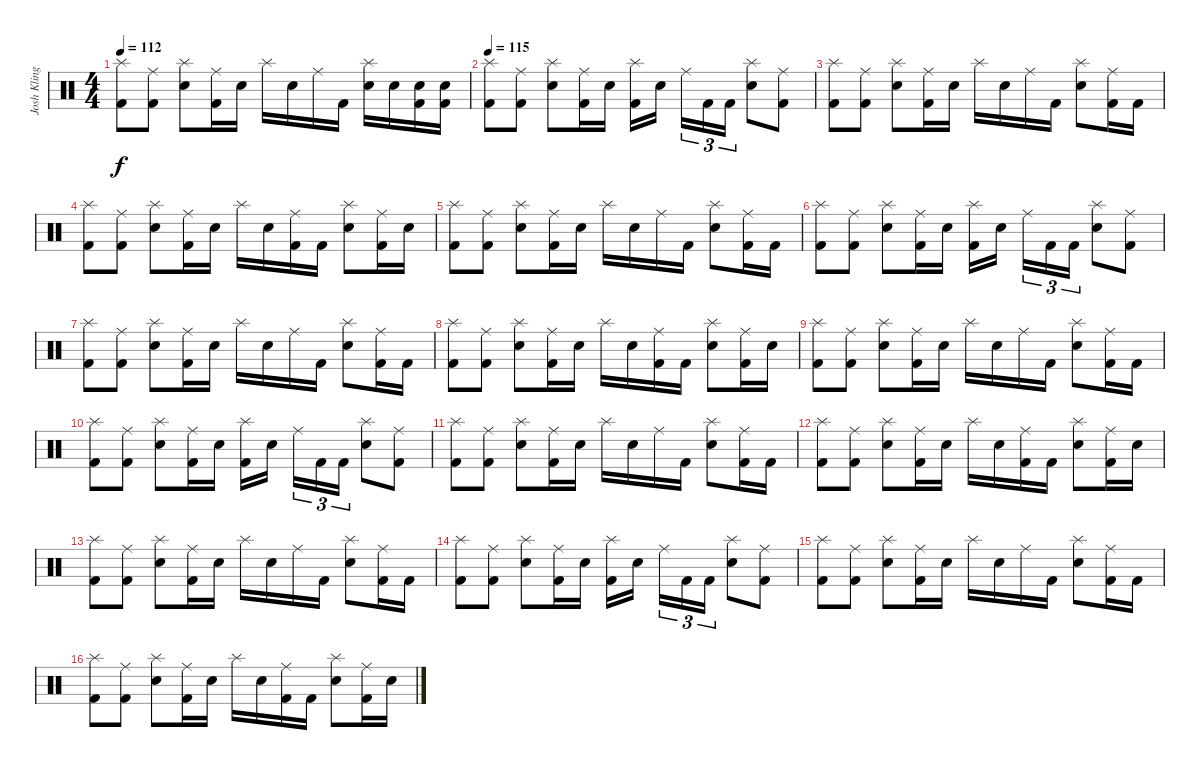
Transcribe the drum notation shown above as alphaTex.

\track ("Josh Klinghoffer " "Josh Kling") {instrument percussion}
\staff {score}
\articulation defaults
\ts (4 4)
\tempo 112
\clef neutral
\ks c
("Splash (hit)" "Kick (hit) 2").8{dy f} ("Ride (middle)" "Kick (hit) 2").8 ("Splash (hit)" "Electric Snare (hit)").8 ("Ride (middle)" "Kick (hit) 2").16 "Electric Snare (hit)".16 "Splash (hit)".16 "Electric Snare (hit)".16 "Ride (middle)".16 "Kick (hit) 2".16 ("Splash (hit)" "Electric Snare (hit)").16 "Electric Snare (hit)".16 ("Electric Snare (hit)" "Kick (hit) 2").16 ("Electric Snare (hit)" "Kick (hit) 2").16 |
\tempo 115
("Splash (hit)" "Kick (hit) 2").8 ("Ride (middle)" "Kick (hit) 2").8 ("Splash (hit)" "Electric Snare (hit)").8 ("Ride (middle)" "Kick (hit) 2").16 "Electric Snare (hit)".16 ("Splash (hit)" "Kick (hit) 2").16 "Electric Snare (hit)".16{beam splitsecondary} "Ride (middle)".16{tu (3 2)} "Kick (hit) 2".16{tu (3 2)} "Kick (hit) 2".16{tu (3 2)} ("Splash (hit)" "Electric Snare (hit)").8 ("Ride (middle)" "Kick (hit) 2").8 |
("Splash (hit)" "Kick (hit) 2").8 ("Ride (middle)" "Kick (hit) 2").8 ("Splash (hit)" "Electric Snare (hit)").8 ("Ride (middle)" "Kick (hit) 2").16 "Electric Snare (hit)".16 "Splash (hit)".16 "Electric Snare (hit)".16 "Ride (middle)".16 "Kick (hit) 2".16 ("Splash (hit)" "Electric Snare (hit)").8 ("Ride (middle)" "Kick (hit) 2").16 "Kick (hit) 2".16 |
("Splash (hit)" "Kick (hit) 2").8 ("Ride (middle)" "Kick (hit) 2").8 ("Splash (hit)" "Electric Snare (hit)").8 ("Ride (middle)" "Kick (hit) 2").16 "Electric Snare (hit)".16 "Splash (hit)".16 "Electric Snare (hit)".16 ("Ride (middle)" "Kick (hit) 2").16 "Kick (hit) 2".16 ("Splash (hit)" "Electric Snare (hit)").8 ("Ride (middle)" "Kick (hit) 2").16 "Electric Snare (hit)".16 |
("Splash (hit)" "Kick (hit) 2").8 ("Ride (middle)" "Kick (hit) 2").8 ("Splash (hit)" "Electric Snare (hit)").8 ("Ride (middle)" "Kick (hit) 2").16 "Electric Snare (hit)".16 "Splash (hit)".16 "Electric Snare (hit)".16 "Ride (middle)".16 "Kick (hit) 2".16 ("Splash (hit)" "Electric Snare (hit)").8 ("Ride (middle)" "Kick (hit) 2").16 "Kick (hit) 2".16 |
("Splash (hit)" "Kick (hit) 2").8 ("Ride (middle)" "Kick (hit) 2").8 ("Splash (hit)" "Electric Snare (hit)").8 ("Ride (middle)" "Kick (hit) 2").16 "Electric Snare (hit)".16 ("Splash (hit)" "Kick (hit) 2").16 "Electric Snare (hit)".16{beam splitsecondary} "Ride (middle)".16{tu (3 2)} "Kick (hit) 2".16{tu (3 2)} "Kick (hit) 2".16{tu (3 2)} ("Splash (hit)" "Electric Snare (hit)").8 ("Ride (middle)" "Kick (hit) 2").8 |
("Splash (hit)" "Kick (hit) 2").8 ("Ride (middle)" "Kick (hit) 2").8 ("Splash (hit)" "Electric Snare (hit)").8 ("Ride (middle)" "Kick (hit) 2").16 "Electric Snare (hit)".16 "Splash (hit)".16 "Electric Snare (hit)".16 "Ride (middle)".16 "Kick (hit) 2".16 ("Splash (hit)" "Electric Snare (hit)").8 ("Ride (middle)" "Kick (hit) 2").16 "Kick (hit) 2".16 |
("Splash (hit)" "Kick (hit) 2").8 ("Ride (middle)" "Kick (hit) 2").8 ("Splash (hit)" "Electric Snare (hit)").8 ("Ride (middle)" "Kick (hit) 2").16 "Electric Snare (hit)".16 "Splash (hit)".16 "Electric Snare (hit)".16 ("Ride (middle)" "Kick (hit) 2").16 "Kick (hit) 2".16 ("Splash (hit)" "Electric Snare (hit)").8 ("Ride (middle)" "Kick (hit) 2").16 "Electric Snare (hit)".16 |
("Splash (hit)" "Kick (hit) 2").8 ("Ride (middle)" "Kick (hit) 2").8 ("Splash (hit)" "Electric Snare (hit)").8 ("Ride (middle)" "Kick (hit) 2").16 "Electric Snare (hit)".16 "Splash (hit)".16 "Electric Snare (hit)".16 "Ride (middle)".16 "Kick (hit) 2".16 ("Splash (hit)" "Electric Snare (hit)").8 ("Ride (middle)" "Kick (hit) 2").16 "Kick (hit) 2".16 |
("Splash (hit)" "Kick (hit) 2").8 ("Ride (middle)" "Kick (hit) 2").8 ("Splash (hit)" "Electric Snare (hit)").8 ("Ride (middle)" "Kick (hit) 2").16 "Electric Snare (hit)".16 ("Splash (hit)" "Kick (hit) 2").16 "Electric Snare (hit)".16{beam splitsecondary} "Ride (middle)".16{tu (3 2)} "Kick (hit) 2".16{tu (3 2)} "Kick (hit) 2".16{tu (3 2)} ("Splash (hit)" "Electric Snare (hit)").8 ("Ride (middle)" "Kick (hit) 2").8 |
("Splash (hit)" "Kick (hit) 2").8 ("Ride (middle)" "Kick (hit) 2").8 ("Splash (hit)" "Electric Snare (hit)").8 ("Ride (middle)" "Kick (hit) 2").16 "Electric Snare (hit)".16 "Splash (hit)".16 "Electric Snare (hit)".16 "Ride (middle)".16 "Kick (hit) 2".16 ("Splash (hit)" "Electric Snare (hit)").8 ("Ride (middle)" "Kick (hit) 2").16 "Kick (hit) 2".16 |
("Splash (hit)" "Kick (hit) 2").8 ("Ride (middle)" "Kick (hit) 2").8 ("Splash (hit)" "Electric Snare (hit)").8 ("Ride (middle)" "Kick (hit) 2").16 "Electric Snare (hit)".16 "Splash (hit)".16 "Electric Snare (hit)".16 ("Ride (middle)" "Kick (hit) 2").16 "Kick (hit) 2".16 ("Splash (hit)" "Electric Snare (hit)").8 ("Ride (middle)" "Kick (hit) 2").16 "Electric Snare (hit)".16 |
("Splash (hit)" "Kick (hit) 2").8 ("Ride (middle)" "Kick (hit) 2").8 ("Splash (hit)" "Electric Snare (hit)").8 ("Ride (middle)" "Kick (hit) 2").16 "Electric Snare (hit)".16 "Splash (hit)".16 "Electric Snare (hit)".16 "Ride (middle)".16 "Kick (hit) 2".16 ("Splash (hit)" "Electric Snare (hit)").8 ("Ride (middle)" "Kick (hit) 2").16 "Kick (hit) 2".16 |
("Splash (hit)" "Kick (hit) 2").8 ("Ride (middle)" "Kick (hit) 2").8 ("Splash (hit)" "Electric Snare (hit)").8 ("Ride (middle)" "Kick (hit) 2").16 "Electric Snare (hit)".16 ("Splash (hit)" "Kick (hit) 2").16 "Electric Snare (hit)".16{beam splitsecondary} "Ride (middle)".16{tu (3 2)} "Kick (hit) 2".16{tu (3 2)} "Kick (hit) 2".16{tu (3 2)} ("Splash (hit)" "Electric Snare (hit)").8 ("Ride (middle)" "Kick (hit) 2").8 |
("Splash (hit)" "Kick (hit) 2").8 ("Ride (middle)" "Kick (hit) 2").8 ("Splash (hit)" "Electric Snare (hit)").8 ("Ride (middle)" "Kick (hit) 2").16 "Electric Snare (hit)".16 "Splash (hit)".16 "Electric Snare (hit)".16 "Ride (middle)".16 "Kick (hit) 2".16 ("Splash (hit)" "Electric Snare (hit)").8 ("Ride (middle)" "Kick (hit) 2").16 "Kick (hit) 2".16 |
("Splash (hit)" "Kick (hit) 2").8 ("Ride (middle)" "Kick (hit) 2").8 ("Splash (hit)" "Electric Snare (hit)").8 ("Ride (middle)" "Kick (hit) 2").16 "Electric Snare (hit)".16 "Splash (hit)".16 "Electric Snare (hit)".16 ("Ride (middle)" "Kick (hit) 2").16 "Kick (hit) 2".16 ("Splash (hit)" "Electric Snare (hit)").8 ("Ride (middle)" "Kick (hit) 2").16 "Electric Snare (hit)".16
